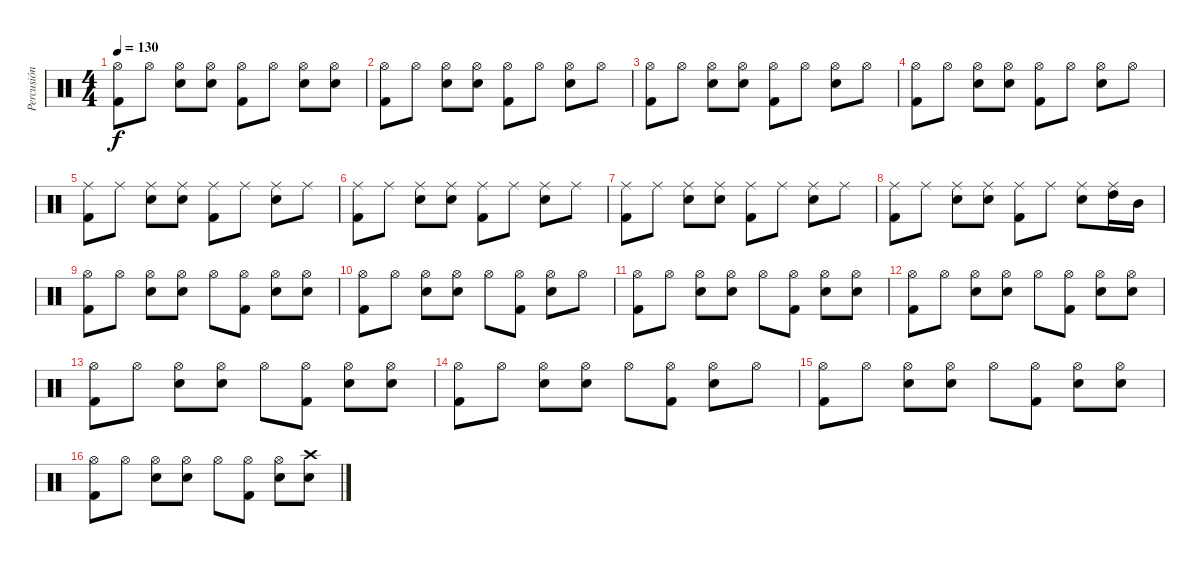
\track ("Percusión" "Percusión") {instrument percussion}
\staff {score}
\articulation defaults
\ts (4 4)
\tempo 130
\clef neutral
\ks c
("Hi-Hat (open)" "Kick (hit) 2").8{dy f} "Hi-Hat (open)".8 ("Hi-Hat (open)" "Electric Snare (hit)").8 ("Hi-Hat (open)" "Electric Snare (hit)").8 ("Hi-Hat (open)" "Kick (hit) 2").8 "Hi-Hat (open)".8 ("Hi-Hat (open)" "Electric Snare (hit)").8 ("Hi-Hat (open)" "Electric Snare (hit)").8 |
("Hi-Hat (open)" "Kick (hit) 2").8 "Hi-Hat (open)".8 ("Hi-Hat (open)" "Electric Snare (hit)").8 ("Hi-Hat (open)" "Electric Snare (hit)").8 ("Hi-Hat (open)" "Kick (hit) 2").8 "Hi-Hat (open)".8 ("Hi-Hat (open)" "Electric Snare (hit)").8 "Hi-Hat (open)".8 |
("Hi-Hat (open)" "Kick (hit) 2").8 "Hi-Hat (open)".8 ("Hi-Hat (open)" "Electric Snare (hit)").8 ("Hi-Hat (open)" "Electric Snare (hit)").8 ("Hi-Hat (open)" "Kick (hit) 2").8 "Hi-Hat (open)".8 ("Hi-Hat (open)" "Electric Snare (hit)").8 "Hi-Hat (open)".8 |
("Hi-Hat (open)" "Kick (hit) 2").8 "Hi-Hat (open)".8 ("Hi-Hat (open)" "Electric Snare (hit)").8 ("Hi-Hat (open)" "Electric Snare (hit)").8 ("Hi-Hat (open)" "Kick (hit) 2").8 "Hi-Hat (open)".8 ("Hi-Hat (open)" "Electric Snare (hit)").8 "Hi-Hat (open)".8 |
("Ride (middle)" "Kick (hit) 2").8 "Ride (middle)".8 ("Ride (middle)" "Electric Snare (hit)").8 ("Ride (middle)" "Electric Snare (hit)").8 ("Ride (middle)" "Kick (hit) 2").8 "Ride (middle)".8 ("Ride (middle)" "Electric Snare (hit)").8 "Ride (middle)".8 |
("Ride (middle)" "Kick (hit) 2").8 "Ride (middle)".8 ("Ride (middle)" "Electric Snare (hit)").8 ("Ride (middle)" "Electric Snare (hit)").8 ("Ride (middle)" "Kick (hit) 2").8 "Ride (middle)".8 ("Ride (middle)" "Electric Snare (hit)").8 "Ride (middle)".8 |
("Ride (middle)" "Kick (hit) 2").8 "Ride (middle)".8 ("Ride (middle)" "Electric Snare (hit)").8 ("Ride (middle)" "Electric Snare (hit)").8 ("Ride (middle)" "Kick (hit) 2").8 "Ride (middle)".8 ("Ride (middle)" "Electric Snare (hit)").8 "Ride (middle)".8 |
("Ride (middle)" "Kick (hit) 2").8 "Ride (middle)".8 ("Ride (middle)" "Electric Snare (hit)").8 ("Ride (middle)" "Electric Snare (hit)").8 ("Ride (middle)" "Kick (hit) 2").8 "Ride (middle)".8 ("Ride (middle)" "Electric Snare (hit)").8 ("High Tom (hit)" "Ride (middle)").16 "Mid Tom (hit)".16 |
("Hi-Hat (open)" "Kick (hit) 2").8 "Hi-Hat (open)".8 ("Hi-Hat (open)" "Electric Snare (hit)").8 ("Hi-Hat (open)" "Electric Snare (hit)").8 "Hi-Hat (open)".8 ("Hi-Hat (open)" "Kick (hit) 2").8 ("Hi-Hat (open)" "Electric Snare (hit)").8 ("Hi-Hat (open)" "Electric Snare (hit)").8 |
("Hi-Hat (open)" "Kick (hit) 2").8 "Hi-Hat (open)".8 ("Hi-Hat (open)" "Electric Snare (hit)").8 ("Hi-Hat (open)" "Electric Snare (hit)").8 "Hi-Hat (open)".8 ("Hi-Hat (open)" "Kick (hit) 2").8 ("Hi-Hat (open)" "Electric Snare (hit)").8 "Hi-Hat (open)".8 |
("Hi-Hat (open)" "Kick (hit) 2").8 "Hi-Hat (open)".8 ("Hi-Hat (open)" "Electric Snare (hit)").8 ("Hi-Hat (open)" "Electric Snare (hit)").8 "Hi-Hat (open)".8 ("Hi-Hat (open)" "Kick (hit) 2").8 ("Hi-Hat (open)" "Electric Snare (hit)").8 ("Hi-Hat (open)" "Electric Snare (hit)").8 |
("Hi-Hat (open)" "Kick (hit) 2").8 "Hi-Hat (open)".8 ("Hi-Hat (open)" "Electric Snare (hit)").8 ("Hi-Hat (open)" "Electric Snare (hit)").8 "Hi-Hat (open)".8 ("Hi-Hat (open)" "Kick (hit) 2").8 ("Hi-Hat (open)" "Electric Snare (hit)").8 ("Hi-Hat (open)" "Electric Snare (hit)").8 |
("Hi-Hat (open)" "Kick (hit) 2").8 "Hi-Hat (open)".8 ("Hi-Hat (open)" "Electric Snare (hit)").8 ("Hi-Hat (open)" "Electric Snare (hit)").8 "Hi-Hat (open)".8 ("Hi-Hat (open)" "Kick (hit) 2").8 ("Hi-Hat (open)" "Electric Snare (hit)").8 ("Hi-Hat (open)" "Electric Snare (hit)").8 |
("Hi-Hat (open)" "Kick (hit) 2").8 "Hi-Hat (open)".8 ("Hi-Hat (open)" "Electric Snare (hit)").8 ("Hi-Hat (open)" "Electric Snare (hit)").8 "Hi-Hat (open)".8 ("Hi-Hat (open)" "Kick (hit) 2").8 ("Hi-Hat (open)" "Electric Snare (hit)").8 "Hi-Hat (open)".8 |
("Hi-Hat (open)" "Kick (hit) 2").8 "Hi-Hat (open)".8 ("Hi-Hat (open)" "Electric Snare (hit)").8 ("Hi-Hat (open)" "Electric Snare (hit)").8 "Hi-Hat (open)".8 ("Hi-Hat (open)" "Kick (hit) 2").8 ("Hi-Hat (open)" "Electric Snare (hit)").8 ("Hi-Hat (open)" "Electric Snare (hit)").8 |
("Hi-Hat (open)" "Kick (hit) 2").8 "Hi-Hat (open)".8 ("Hi-Hat (open)" "Electric Snare (hit)").8 ("Hi-Hat (open)" "Electric Snare (hit)").8 "Hi-Hat (open)".8 ("Hi-Hat (open)" "Kick (hit) 2").8 ("Hi-Hat (open)" "Electric Snare (hit)").8 ("Crash high (hit)" "Electric Snare (hit)").8
